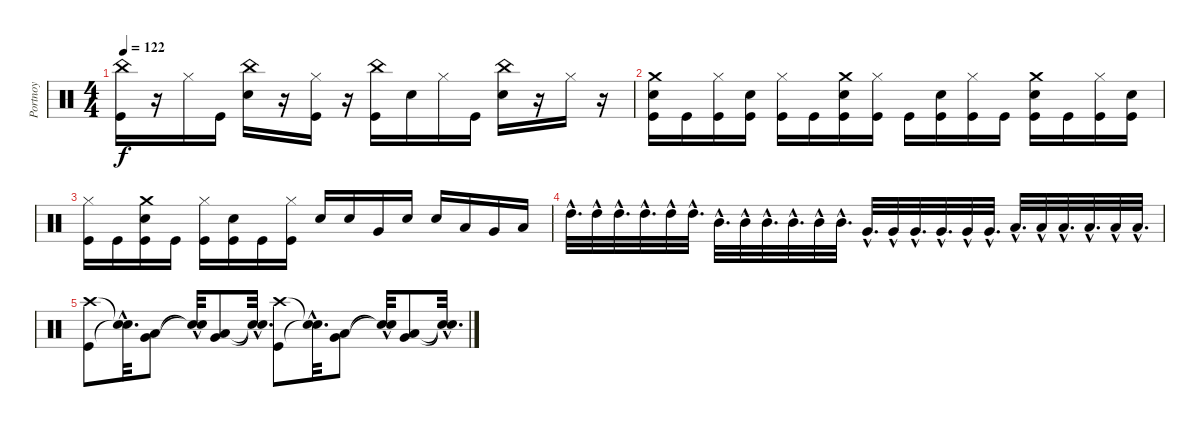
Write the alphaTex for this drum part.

\track ("Portnoy" "Portnoy") {instrument percussion}
\staff {score}
\articulation defaults
\ts (4 4)
\tempo 122
\clef neutral
\ks c
("China (hit)" "Kick (hit)").16{dy f} r.16 "Hi-Hat (closed)".16 "Kick (hit)".16 ("China (hit)" "Metronome (bell)").16 r.16 ("Hi-Hat (closed)" "Kick (hit)").16 r.16 ("China (hit)" "Kick (hit)").16 "Metronome (bell)".16 "Hi-Hat (closed)".16 "Kick (hit)".16 ("China (hit)" "Metronome (bell)").16 r.16 "Hi-Hat (closed)".16 r.16 |
("Crash medium (hit)" "Kick (hit)" "Metronome (bell)").16 "Kick (hit)".16 ("Hi-Hat (closed)" "Kick (hit)").16 ("Kick (hit)" "Metronome (bell)").16 ("Hi-Hat (closed)" "Kick (hit)").16 "Kick (hit)".16 ("Crash medium (hit)" "Kick (hit)" "Metronome (bell)").16 ("Hi-Hat (closed)" "Kick (hit)").16 "Kick (hit)".16 ("Metronome (bell)" "Kick (hit)").16 ("Hi-Hat (closed)" "Kick (hit)").16 "Kick (hit)".16 ("Crash medium (hit)" "Kick (hit)" "Metronome (bell)").16 "Kick (hit)".16 ("Hi-Hat (closed)" "Kick (hit)").16 ("Kick (hit)" "Metronome (bell)").16 |
("Hi-Hat (closed)" "Kick (hit)").16 "Kick (hit)".16 ("Crash medium (hit)" "Metronome (bell)" "Kick (hit)").16 "Kick (hit)".16 ("Hi-Hat (closed)" "Kick (hit)").16 ("Metronome (bell)" "Kick (hit)").16 "Kick (hit)".16 ("Hi-Hat (closed)" "Kick (hit)").16 "Metronome (bell)".16 "Metronome (bell)".16 "Very Low Tom (hit)".16 "Metronome (bell)".16 "Metronome (bell)".16 "Low Tom (hit)".16 "Very Low Tom (hit)".16 "Low Floor Tom (hit)".16 |
"High Tom (hit)"{hac}.32{d} "High Tom (hit)"{hac}.32 "High Tom (hit)"{hac}.32{d} "High Tom (hit)"{hac}.32{d} "High Tom (hit)"{hac}.32 "High Tom (hit)"{hac}.32{d} "Mid Tom (hit)"{hac}.32{d} "Mid Tom (hit)"{hac}.32 "Mid Tom (hit)"{hac}.32{d} "Mid Tom (hit)"{hac}.32{d} "Mid Tom (hit)"{hac}.32 "Mid Tom (hit)"{hac}.32{d} "Very Low Tom (hit)"{hac}.32{d} "Very Low Tom (hit)"{hac}.32 "Very Low Tom (hit)"{hac}.32{d} "Very Low Tom (hit)"{hac}.32{d} "Very Low Tom (hit)"{hac}.32 "Very Low Tom (hit)"{hac}.32{d} "Low Floor Tom (hit)"{hac}.32{d} "Low Floor Tom (hit)"{hac}.32 "Low Floor Tom (hit)"{hac}.32{d} "Low Floor Tom (hit)"{hac}.32{d} "Low Floor Tom (hit)"{hac}.32 "Low Floor Tom (hit)"{hac}.32{d} |
("Crash high (hit)" "Kick (hit)").8 ("Snare (hit)"{hac t} "Snare (hit)"{hac t}).32{d} ("Low Tom (hit)" "Very Low Tom (hit)").8 ("Snare (hit)"{hac t} "Snare (hit)"{hac t}).32 ("Very Low Tom (hit)" "Low Floor Tom (hit)").8 ("Snare (hit)"{hac t} "Snare (hit)"{hac t}).32{d} ("Crash high (hit)" "Kick (hit)").8 ("Snare (hit)"{hac t} "Snare (hit)"{hac t}).32{d} ("Low Tom (hit)" "Very Low Tom (hit)").8 ("Snare (hit)"{hac t} "Snare (hit)"{hac t}).32 ("Very Low Tom (hit)" "Low Floor Tom (hit)").8 ("Snare (hit)"{hac t} "Snare (hit)"{hac t}).32{d}
